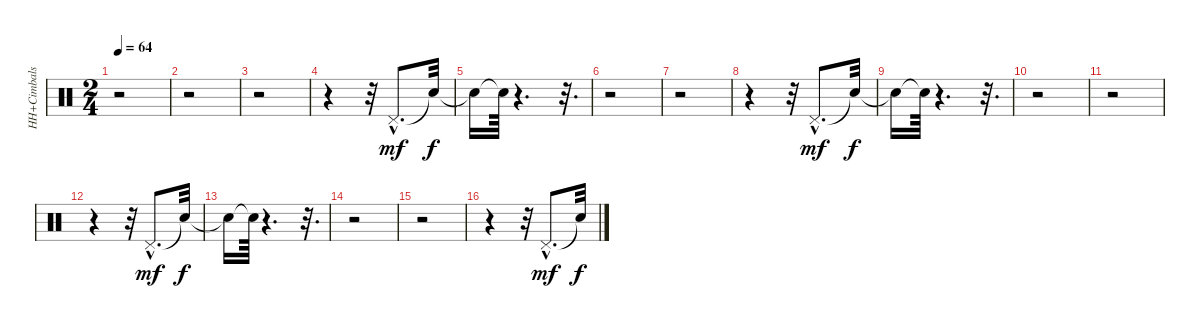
\track ("HH+Cimbals" "HH+Cimbals") {instrument percussion}
\staff {score}
\articulation defaults
\ts (2 4)
\tempo 64
\clef neutral
\ks c
r.2{dy mf} |
r.2 |
r.2 |
r.4 r.32 "Pedal Hi-Hat (hit)"{hac}.8{d} "Snare (hit)"{t}.32{dy f} |
"Snare (hit)"{t}.16 "Snare (hit)"{t}.64 r.4{d} r.32{d} |
r.2 |
r.2 |
r.4 r.32 "Pedal Hi-Hat (hit)"{hac}.8{d dy mf} "Snare (hit)"{t}.32{dy f} |
"Snare (hit)"{t}.16 "Snare (hit)"{t}.64 r.4{d} r.32{d} |
r.2 |
r.2 |
r.4 r.32 "Pedal Hi-Hat (hit)"{hac}.8{d dy mf} "Snare (hit)"{t}.32{dy f} |
"Snare (hit)"{t}.16 "Snare (hit)"{t}.64 r.4{d} r.32{d} |
r.2 |
r.2 |
r.4 r.32 "Pedal Hi-Hat (hit)"{hac}.8{d dy mf} "Snare (hit)"{t}.32{dy f}
